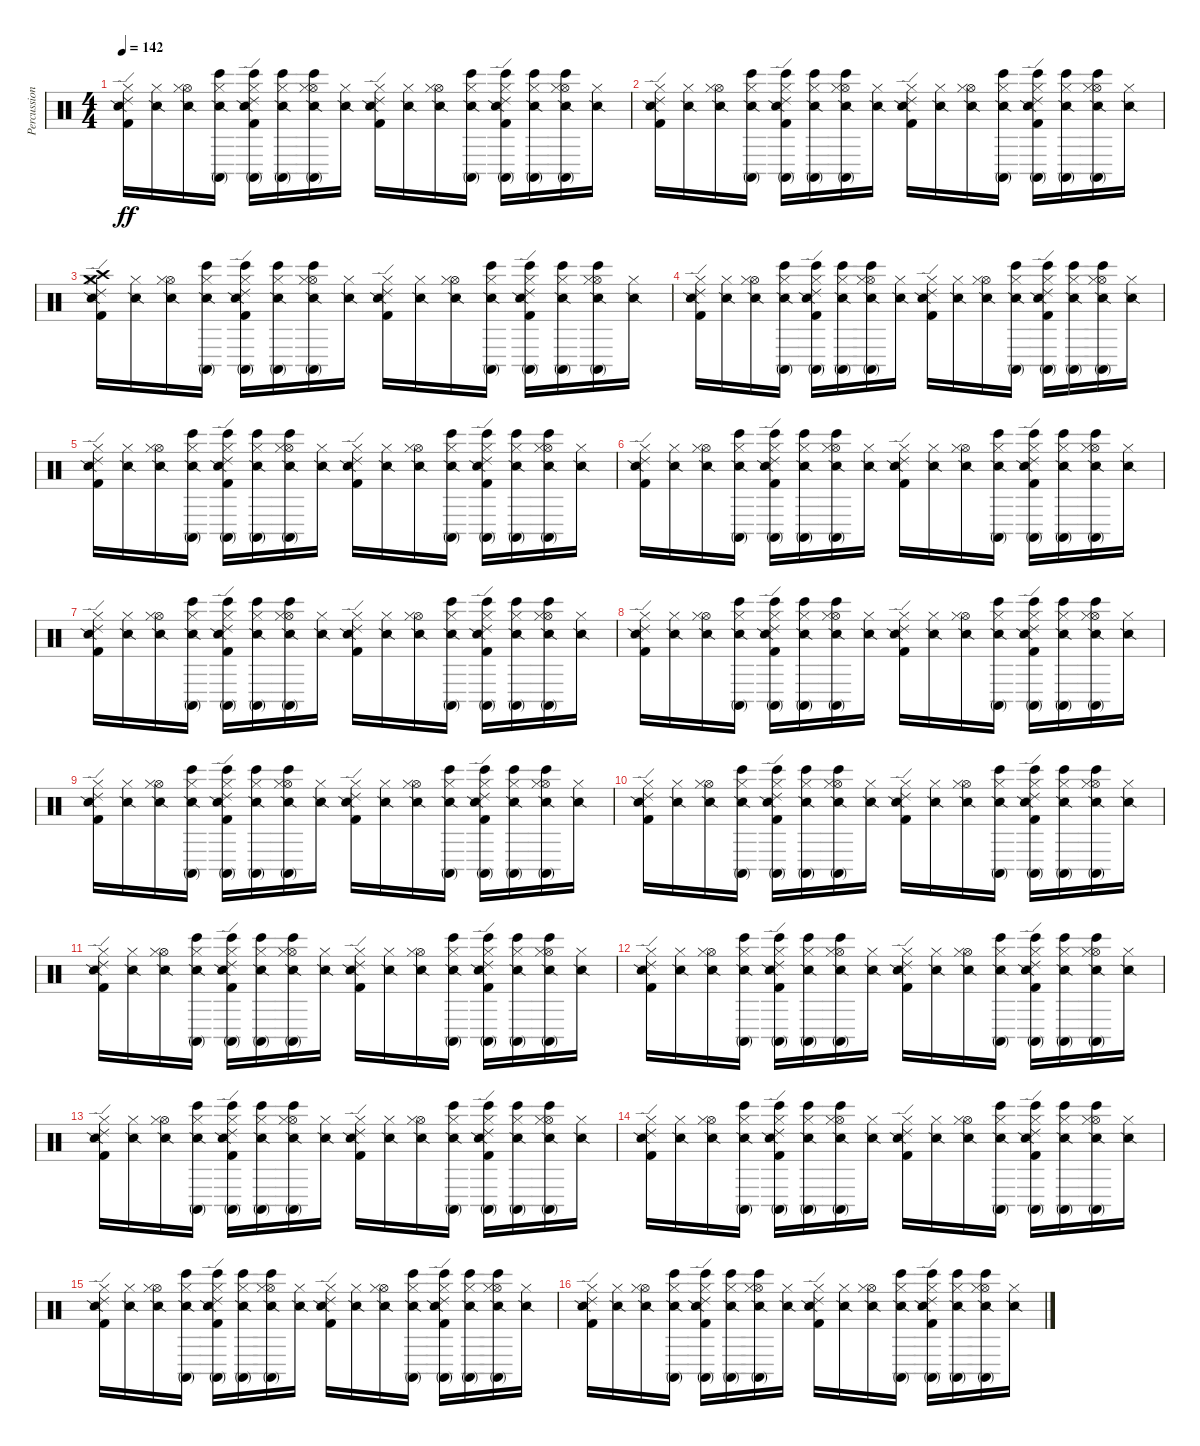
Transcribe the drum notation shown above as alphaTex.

\track ("Percussion" "Percussion") {instrument percussion}
\staff {score}
\articulation defaults
\ts (4 4)
\tempo 142
\clef neutral
\ks c
("Ride (edge) 2" "Hi-Hat (closed)" "Snare (side stick) 2" "Kick (hit) 2").16{dy ff} ("Hi-Hat (closed)" "Snare (side stick) 2").16 ("Hi-Hat (open)" "Hi-Hat (closed)" "Snare (side stick) 2").16 ("Conga high (mute)" "Bongo High (hit)" "Hi-Hat (closed)" "Snare (side stick) 2").16 ("Conga high (mute)" "Bongo High (hit)" "Ride (edge) 2" "Hi-Hat (closed)" "Snare (side stick) 2" "Kick (hit) 2").16 ("Conga high (mute)" "Bongo High (hit)" "Hi-Hat (closed)" "Snare (side stick) 2").16 ("Conga high (mute)" "Bongo High (hit)" "Hi-Hat (open)" "Hi-Hat (closed)" "Snare (side stick) 2").16 ("Hi-Hat (closed)" "Snare (side stick) 2").16 ("Ride (edge) 2" "Hi-Hat (closed)" "Snare (side stick) 2" "Kick (hit) 2").16 ("Hi-Hat (closed)" "Snare (side stick) 2").16 ("Hi-Hat (open)" "Hi-Hat (closed)" "Snare (side stick) 2").16 ("Conga high (mute)" "Bongo High (hit)" "Hi-Hat (closed)" "Snare (side stick) 2").16 ("Conga high (mute)" "Bongo High (hit)" "Ride (edge) 2" "Hi-Hat (closed)" "Snare (side stick) 2" "Kick (hit) 2").16 ("Conga high (mute)" "Bongo High (hit)" "Hi-Hat (closed)" "Snare (side stick) 2").16 ("Conga high (mute)" "Bongo High (hit)" "Hi-Hat (open)" "Hi-Hat (closed)" "Snare (side stick) 2").16 ("Hi-Hat (closed)" "Snare (side stick) 2").16 |
("Ride (edge) 2" "Hi-Hat (closed)" "Snare (side stick) 2" "Kick (hit) 2").16 ("Hi-Hat (closed)" "Snare (side stick) 2").16 ("Hi-Hat (open)" "Hi-Hat (closed)" "Snare (side stick) 2").16 ("Conga high (mute)" "Bongo High (hit)" "Hi-Hat (closed)" "Snare (side stick) 2").16 ("Conga high (mute)" "Bongo High (hit)" "Ride (edge) 2" "Hi-Hat (closed)" "Snare (side stick) 2" "Kick (hit) 2").16 ("Conga high (mute)" "Bongo High (hit)" "Hi-Hat (closed)" "Snare (side stick) 2").16 ("Conga high (mute)" "Bongo High (hit)" "Hi-Hat (open)" "Hi-Hat (closed)" "Snare (side stick) 2").16 ("Hi-Hat (closed)" "Snare (side stick) 2").16 ("Ride (edge) 2" "Hi-Hat (closed)" "Snare (side stick) 2" "Kick (hit) 2").16 ("Hi-Hat (closed)" "Snare (side stick) 2").16 ("Hi-Hat (open)" "Hi-Hat (closed)" "Snare (side stick) 2").16 ("Conga high (mute)" "Bongo High (hit)" "Hi-Hat (closed)" "Snare (side stick) 2").16 ("Conga high (mute)" "Bongo High (hit)" "Ride (edge) 2" "Hi-Hat (closed)" "Snare (side stick) 2" "Kick (hit) 2").16 ("Conga high (mute)" "Bongo High (hit)" "Hi-Hat (closed)" "Snare (side stick) 2").16 ("Conga high (mute)" "Bongo High (hit)" "Hi-Hat (open)" "Hi-Hat (closed)" "Snare (side stick) 2").16 ("Hi-Hat (closed)" "Snare (side stick) 2").16 |
("Ride (edge) 2" "Crash medium (hit)" "Crash high (hit)" "Hi-Hat (closed)" "Snare (side stick) 2" "Kick (hit) 2").16 ("Hi-Hat (closed)" "Snare (side stick) 2").16 ("Hi-Hat (open)" "Hi-Hat (closed)" "Snare (side stick) 2").16 ("Conga high (mute)" "Bongo High (hit)" "Hi-Hat (closed)" "Snare (side stick) 2").16 ("Conga high (mute)" "Bongo High (hit)" "Ride (edge) 2" "Hi-Hat (closed)" "Snare (side stick) 2" "Kick (hit) 2").16 ("Conga high (mute)" "Bongo High (hit)" "Hi-Hat (closed)" "Snare (side stick) 2").16 ("Conga high (mute)" "Bongo High (hit)" "Hi-Hat (open)" "Hi-Hat (closed)" "Snare (side stick) 2").16 ("Hi-Hat (closed)" "Snare (side stick) 2").16 ("Ride (edge) 2" "Hi-Hat (closed)" "Snare (side stick) 2" "Kick (hit) 2").16 ("Hi-Hat (closed)" "Snare (side stick) 2").16 ("Hi-Hat (open)" "Hi-Hat (closed)" "Snare (side stick) 2").16 ("Conga high (mute)" "Bongo High (hit)" "Hi-Hat (closed)" "Snare (side stick) 2").16 ("Conga high (mute)" "Bongo High (hit)" "Ride (edge) 2" "Hi-Hat (closed)" "Snare (side stick) 2" "Kick (hit) 2").16 ("Conga high (mute)" "Bongo High (hit)" "Hi-Hat (closed)" "Snare (side stick) 2").16 ("Conga high (mute)" "Bongo High (hit)" "Hi-Hat (open)" "Hi-Hat (closed)" "Snare (side stick) 2").16 ("Hi-Hat (closed)" "Snare (side stick) 2").16 |
("Ride (edge) 2" "Hi-Hat (closed)" "Snare (side stick) 2" "Kick (hit) 2").16 ("Hi-Hat (closed)" "Snare (side stick) 2").16 ("Hi-Hat (open)" "Hi-Hat (closed)" "Snare (side stick) 2").16 ("Conga high (mute)" "Bongo High (hit)" "Hi-Hat (closed)" "Snare (side stick) 2").16 ("Conga high (mute)" "Bongo High (hit)" "Ride (edge) 2" "Hi-Hat (closed)" "Snare (side stick) 2" "Kick (hit) 2").16 ("Conga high (mute)" "Bongo High (hit)" "Hi-Hat (closed)" "Snare (side stick) 2").16 ("Conga high (mute)" "Bongo High (hit)" "Hi-Hat (open)" "Hi-Hat (closed)" "Snare (side stick) 2").16 ("Hi-Hat (closed)" "Snare (side stick) 2").16 ("Ride (edge) 2" "Hi-Hat (closed)" "Snare (side stick) 2" "Kick (hit) 2").16 ("Hi-Hat (closed)" "Snare (side stick) 2").16 ("Hi-Hat (open)" "Hi-Hat (closed)" "Snare (side stick) 2").16 ("Conga high (mute)" "Bongo High (hit)" "Hi-Hat (closed)" "Snare (side stick) 2").16 ("Conga high (mute)" "Bongo High (hit)" "Ride (edge) 2" "Hi-Hat (closed)" "Snare (side stick) 2" "Kick (hit) 2").16 ("Conga high (mute)" "Bongo High (hit)" "Hi-Hat (closed)" "Snare (side stick) 2").16 ("Conga high (mute)" "Bongo High (hit)" "Hi-Hat (open)" "Hi-Hat (closed)" "Snare (side stick) 2").16 ("Hi-Hat (closed)" "Snare (side stick) 2").16 |
("Ride (edge) 2" "Hi-Hat (closed)" "Snare (side stick) 2" "Kick (hit) 2").16 ("Hi-Hat (closed)" "Snare (side stick) 2").16 ("Hi-Hat (open)" "Hi-Hat (closed)" "Snare (side stick) 2").16 ("Conga high (mute)" "Bongo High (hit)" "Hi-Hat (closed)" "Snare (side stick) 2").16 ("Conga high (mute)" "Bongo High (hit)" "Ride (edge) 2" "Hi-Hat (closed)" "Snare (side stick) 2" "Kick (hit) 2").16 ("Conga high (mute)" "Bongo High (hit)" "Hi-Hat (closed)" "Snare (side stick) 2").16 ("Conga high (mute)" "Bongo High (hit)" "Hi-Hat (open)" "Hi-Hat (closed)" "Snare (side stick) 2").16 ("Hi-Hat (closed)" "Snare (side stick) 2").16 ("Ride (edge) 2" "Hi-Hat (closed)" "Snare (side stick) 2" "Kick (hit) 2").16 ("Hi-Hat (closed)" "Snare (side stick) 2").16 ("Hi-Hat (open)" "Hi-Hat (closed)" "Snare (side stick) 2").16 ("Conga high (mute)" "Bongo High (hit)" "Hi-Hat (closed)" "Snare (side stick) 2").16 ("Conga high (mute)" "Bongo High (hit)" "Ride (edge) 2" "Hi-Hat (closed)" "Snare (side stick) 2" "Kick (hit) 2").16 ("Conga high (mute)" "Bongo High (hit)" "Hi-Hat (closed)" "Snare (side stick) 2").16 ("Conga high (mute)" "Bongo High (hit)" "Hi-Hat (open)" "Hi-Hat (closed)" "Snare (side stick) 2").16 ("Hi-Hat (closed)" "Snare (side stick) 2").16 |
("Ride (edge) 2" "Hi-Hat (closed)" "Snare (side stick) 2" "Kick (hit) 2").16 ("Hi-Hat (closed)" "Snare (side stick) 2").16 ("Hi-Hat (open)" "Hi-Hat (closed)" "Snare (side stick) 2").16 ("Conga high (mute)" "Bongo High (hit)" "Hi-Hat (closed)" "Snare (side stick) 2").16 ("Conga high (mute)" "Bongo High (hit)" "Ride (edge) 2" "Hi-Hat (closed)" "Snare (side stick) 2" "Kick (hit) 2").16 ("Conga high (mute)" "Bongo High (hit)" "Hi-Hat (closed)" "Snare (side stick) 2").16 ("Conga high (mute)" "Bongo High (hit)" "Hi-Hat (open)" "Hi-Hat (closed)" "Snare (side stick) 2").16 ("Hi-Hat (closed)" "Snare (side stick) 2").16 ("Ride (edge) 2" "Hi-Hat (closed)" "Snare (side stick) 2" "Kick (hit) 2").16 ("Hi-Hat (closed)" "Snare (side stick) 2").16 ("Hi-Hat (open)" "Hi-Hat (closed)" "Snare (side stick) 2").16 ("Conga high (mute)" "Bongo High (hit)" "Hi-Hat (closed)" "Snare (side stick) 2").16 ("Conga high (mute)" "Bongo High (hit)" "Ride (edge) 2" "Hi-Hat (closed)" "Snare (side stick) 2" "Kick (hit) 2").16 ("Conga high (mute)" "Bongo High (hit)" "Hi-Hat (closed)" "Snare (side stick) 2").16 ("Conga high (mute)" "Bongo High (hit)" "Hi-Hat (open)" "Hi-Hat (closed)" "Snare (side stick) 2").16 ("Hi-Hat (closed)" "Snare (side stick) 2").16 |
("Ride (edge) 2" "Hi-Hat (closed)" "Snare (side stick) 2" "Kick (hit) 2").16 ("Hi-Hat (closed)" "Snare (side stick) 2").16 ("Hi-Hat (open)" "Hi-Hat (closed)" "Snare (side stick) 2").16 ("Conga high (mute)" "Bongo High (hit)" "Hi-Hat (closed)" "Snare (side stick) 2").16 ("Conga high (mute)" "Bongo High (hit)" "Ride (edge) 2" "Hi-Hat (closed)" "Snare (side stick) 2" "Kick (hit) 2").16 ("Conga high (mute)" "Bongo High (hit)" "Hi-Hat (closed)" "Snare (side stick) 2").16 ("Conga high (mute)" "Bongo High (hit)" "Hi-Hat (open)" "Hi-Hat (closed)" "Snare (side stick) 2").16 ("Hi-Hat (closed)" "Snare (side stick) 2").16 ("Ride (edge) 2" "Hi-Hat (closed)" "Snare (side stick) 2" "Kick (hit) 2").16 ("Hi-Hat (closed)" "Snare (side stick) 2").16 ("Hi-Hat (open)" "Hi-Hat (closed)" "Snare (side stick) 2").16 ("Conga high (mute)" "Bongo High (hit)" "Hi-Hat (closed)" "Snare (side stick) 2").16 ("Conga high (mute)" "Bongo High (hit)" "Ride (edge) 2" "Hi-Hat (closed)" "Snare (side stick) 2" "Kick (hit) 2").16 ("Conga high (mute)" "Bongo High (hit)" "Hi-Hat (closed)" "Snare (side stick) 2").16 ("Conga high (mute)" "Bongo High (hit)" "Hi-Hat (open)" "Hi-Hat (closed)" "Snare (side stick) 2").16 ("Hi-Hat (closed)" "Snare (side stick) 2").16 |
("Ride (edge) 2" "Hi-Hat (closed)" "Snare (side stick) 2" "Kick (hit) 2").16 ("Hi-Hat (closed)" "Snare (side stick) 2").16 ("Hi-Hat (open)" "Hi-Hat (closed)" "Snare (side stick) 2").16 ("Conga high (mute)" "Bongo High (hit)" "Hi-Hat (closed)" "Snare (side stick) 2").16 ("Conga high (mute)" "Bongo High (hit)" "Ride (edge) 2" "Hi-Hat (closed)" "Snare (side stick) 2" "Kick (hit) 2").16 ("Conga high (mute)" "Bongo High (hit)" "Hi-Hat (closed)" "Snare (side stick) 2").16 ("Conga high (mute)" "Bongo High (hit)" "Hi-Hat (open)" "Hi-Hat (closed)" "Snare (side stick) 2").16 ("Hi-Hat (closed)" "Snare (side stick) 2").16 ("Ride (edge) 2" "Hi-Hat (closed)" "Snare (side stick) 2" "Kick (hit) 2").16 ("Hi-Hat (closed)" "Snare (side stick) 2").16 ("Hi-Hat (open)" "Hi-Hat (closed)" "Snare (side stick) 2").16 ("Conga high (mute)" "Bongo High (hit)" "Hi-Hat (closed)" "Snare (side stick) 2").16 ("Conga high (mute)" "Bongo High (hit)" "Ride (edge) 2" "Hi-Hat (closed)" "Snare (side stick) 2" "Kick (hit) 2").16 ("Conga high (mute)" "Bongo High (hit)" "Hi-Hat (closed)" "Snare (side stick) 2").16 ("Conga high (mute)" "Bongo High (hit)" "Hi-Hat (open)" "Hi-Hat (closed)" "Snare (side stick) 2").16 ("Hi-Hat (closed)" "Snare (side stick) 2").16 |
("Ride (edge) 2" "Hi-Hat (closed)" "Snare (side stick) 2" "Kick (hit) 2").16 ("Hi-Hat (closed)" "Snare (side stick) 2").16 ("Hi-Hat (open)" "Hi-Hat (closed)" "Snare (side stick) 2").16 ("Conga high (mute)" "Bongo High (hit)" "Hi-Hat (closed)" "Snare (side stick) 2").16 ("Conga high (mute)" "Bongo High (hit)" "Ride (edge) 2" "Hi-Hat (closed)" "Snare (side stick) 2" "Kick (hit) 2").16 ("Conga high (mute)" "Bongo High (hit)" "Hi-Hat (closed)" "Snare (side stick) 2").16 ("Conga high (mute)" "Bongo High (hit)" "Hi-Hat (open)" "Hi-Hat (closed)" "Snare (side stick) 2").16 ("Hi-Hat (closed)" "Snare (side stick) 2").16 ("Ride (edge) 2" "Hi-Hat (closed)" "Snare (side stick) 2" "Kick (hit) 2").16 ("Hi-Hat (closed)" "Snare (side stick) 2").16 ("Hi-Hat (open)" "Hi-Hat (closed)" "Snare (side stick) 2").16 ("Conga high (mute)" "Bongo High (hit)" "Hi-Hat (closed)" "Snare (side stick) 2").16 ("Conga high (mute)" "Bongo High (hit)" "Ride (edge) 2" "Hi-Hat (closed)" "Snare (side stick) 2" "Kick (hit) 2").16 ("Conga high (mute)" "Bongo High (hit)" "Hi-Hat (closed)" "Snare (side stick) 2").16 ("Conga high (mute)" "Bongo High (hit)" "Hi-Hat (open)" "Hi-Hat (closed)" "Snare (side stick) 2").16 ("Hi-Hat (closed)" "Snare (side stick) 2").16 |
("Ride (edge) 2" "Hi-Hat (closed)" "Snare (side stick) 2" "Kick (hit) 2").16 ("Hi-Hat (closed)" "Snare (side stick) 2").16 ("Hi-Hat (open)" "Hi-Hat (closed)" "Snare (side stick) 2").16 ("Conga high (mute)" "Bongo High (hit)" "Hi-Hat (closed)" "Snare (side stick) 2").16 ("Conga high (mute)" "Bongo High (hit)" "Ride (edge) 2" "Hi-Hat (closed)" "Snare (side stick) 2" "Kick (hit) 2").16 ("Conga high (mute)" "Bongo High (hit)" "Hi-Hat (closed)" "Snare (side stick) 2").16 ("Conga high (mute)" "Bongo High (hit)" "Hi-Hat (open)" "Hi-Hat (closed)" "Snare (side stick) 2").16 ("Hi-Hat (closed)" "Snare (side stick) 2").16 ("Ride (edge) 2" "Hi-Hat (closed)" "Snare (side stick) 2" "Kick (hit) 2").16 ("Hi-Hat (closed)" "Snare (side stick) 2").16 ("Hi-Hat (open)" "Hi-Hat (closed)" "Snare (side stick) 2").16 ("Conga high (mute)" "Bongo High (hit)" "Hi-Hat (closed)" "Snare (side stick) 2").16 ("Conga high (mute)" "Bongo High (hit)" "Ride (edge) 2" "Hi-Hat (closed)" "Snare (side stick) 2" "Kick (hit) 2").16 ("Conga high (mute)" "Bongo High (hit)" "Hi-Hat (closed)" "Snare (side stick) 2").16 ("Conga high (mute)" "Bongo High (hit)" "Hi-Hat (open)" "Hi-Hat (closed)" "Snare (side stick) 2").16 ("Hi-Hat (closed)" "Snare (side stick) 2").16 |
("Ride (edge) 2" "Hi-Hat (closed)" "Snare (side stick) 2" "Kick (hit) 2").16 ("Hi-Hat (closed)" "Snare (side stick) 2").16 ("Hi-Hat (open)" "Hi-Hat (closed)" "Snare (side stick) 2").16 ("Conga high (mute)" "Bongo High (hit)" "Hi-Hat (closed)" "Snare (side stick) 2").16 ("Conga high (mute)" "Bongo High (hit)" "Ride (edge) 2" "Hi-Hat (closed)" "Snare (side stick) 2" "Kick (hit) 2").16 ("Conga high (mute)" "Bongo High (hit)" "Hi-Hat (closed)" "Snare (side stick) 2").16 ("Conga high (mute)" "Bongo High (hit)" "Hi-Hat (open)" "Hi-Hat (closed)" "Snare (side stick) 2").16 ("Hi-Hat (closed)" "Snare (side stick) 2").16 ("Ride (edge) 2" "Hi-Hat (closed)" "Snare (side stick) 2" "Kick (hit) 2").16 ("Hi-Hat (closed)" "Snare (side stick) 2").16 ("Hi-Hat (open)" "Hi-Hat (closed)" "Snare (side stick) 2").16 ("Conga high (mute)" "Bongo High (hit)" "Hi-Hat (closed)" "Snare (side stick) 2").16 ("Conga high (mute)" "Bongo High (hit)" "Ride (edge) 2" "Hi-Hat (closed)" "Snare (side stick) 2" "Kick (hit) 2").16 ("Conga high (mute)" "Bongo High (hit)" "Hi-Hat (closed)" "Snare (side stick) 2").16 ("Conga high (mute)" "Bongo High (hit)" "Hi-Hat (open)" "Hi-Hat (closed)" "Snare (side stick) 2").16 ("Hi-Hat (closed)" "Snare (side stick) 2").16 |
("Ride (edge) 2" "Hi-Hat (closed)" "Snare (side stick) 2" "Kick (hit) 2").16 ("Hi-Hat (closed)" "Snare (side stick) 2").16 ("Hi-Hat (open)" "Hi-Hat (closed)" "Snare (side stick) 2").16 ("Conga high (mute)" "Bongo High (hit)" "Hi-Hat (closed)" "Snare (side stick) 2").16 ("Conga high (mute)" "Bongo High (hit)" "Ride (edge) 2" "Hi-Hat (closed)" "Snare (side stick) 2" "Kick (hit) 2").16 ("Conga high (mute)" "Bongo High (hit)" "Hi-Hat (closed)" "Snare (side stick) 2").16 ("Conga high (mute)" "Bongo High (hit)" "Hi-Hat (open)" "Hi-Hat (closed)" "Snare (side stick) 2").16 ("Hi-Hat (closed)" "Snare (side stick) 2").16 ("Ride (edge) 2" "Hi-Hat (closed)" "Snare (side stick) 2" "Kick (hit) 2").16 ("Hi-Hat (closed)" "Snare (side stick) 2").16 ("Hi-Hat (open)" "Hi-Hat (closed)" "Snare (side stick) 2").16 ("Conga high (mute)" "Bongo High (hit)" "Hi-Hat (closed)" "Snare (side stick) 2").16 ("Conga high (mute)" "Bongo High (hit)" "Ride (edge) 2" "Hi-Hat (closed)" "Snare (side stick) 2" "Kick (hit) 2").16 ("Conga high (mute)" "Bongo High (hit)" "Hi-Hat (closed)" "Snare (side stick) 2").16 ("Conga high (mute)" "Bongo High (hit)" "Hi-Hat (open)" "Hi-Hat (closed)" "Snare (side stick) 2").16 ("Hi-Hat (closed)" "Snare (side stick) 2").16 |
("Ride (edge) 2" "Hi-Hat (closed)" "Snare (side stick) 2" "Kick (hit) 2").16 ("Hi-Hat (closed)" "Snare (side stick) 2").16 ("Hi-Hat (open)" "Hi-Hat (closed)" "Snare (side stick) 2").16 ("Conga high (mute)" "Bongo High (hit)" "Hi-Hat (closed)" "Snare (side stick) 2").16 ("Conga high (mute)" "Bongo High (hit)" "Ride (edge) 2" "Hi-Hat (closed)" "Snare (side stick) 2" "Kick (hit) 2").16 ("Conga high (mute)" "Bongo High (hit)" "Hi-Hat (closed)" "Snare (side stick) 2").16 ("Conga high (mute)" "Bongo High (hit)" "Hi-Hat (open)" "Hi-Hat (closed)" "Snare (side stick) 2").16 ("Hi-Hat (closed)" "Snare (side stick) 2").16 ("Ride (edge) 2" "Hi-Hat (closed)" "Snare (side stick) 2" "Kick (hit) 2").16 ("Hi-Hat (closed)" "Snare (side stick) 2").16 ("Hi-Hat (open)" "Hi-Hat (closed)" "Snare (side stick) 2").16 ("Conga high (mute)" "Bongo High (hit)" "Hi-Hat (closed)" "Snare (side stick) 2").16 ("Conga high (mute)" "Bongo High (hit)" "Ride (edge) 2" "Hi-Hat (closed)" "Snare (side stick) 2" "Kick (hit) 2").16 ("Conga high (mute)" "Bongo High (hit)" "Hi-Hat (closed)" "Snare (side stick) 2").16 ("Conga high (mute)" "Bongo High (hit)" "Hi-Hat (open)" "Hi-Hat (closed)" "Snare (side stick) 2").16 ("Hi-Hat (closed)" "Snare (side stick) 2").16 |
("Ride (edge) 2" "Hi-Hat (closed)" "Snare (side stick) 2" "Kick (hit) 2").16 ("Hi-Hat (closed)" "Snare (side stick) 2").16 ("Hi-Hat (open)" "Hi-Hat (closed)" "Snare (side stick) 2").16 ("Conga high (mute)" "Bongo High (hit)" "Hi-Hat (closed)" "Snare (side stick) 2").16 ("Conga high (mute)" "Bongo High (hit)" "Ride (edge) 2" "Hi-Hat (closed)" "Snare (side stick) 2" "Kick (hit) 2").16 ("Conga high (mute)" "Bongo High (hit)" "Hi-Hat (closed)" "Snare (side stick) 2").16 ("Conga high (mute)" "Bongo High (hit)" "Hi-Hat (open)" "Hi-Hat (closed)" "Snare (side stick) 2").16 ("Hi-Hat (closed)" "Snare (side stick) 2").16 ("Ride (edge) 2" "Hi-Hat (closed)" "Snare (side stick) 2" "Kick (hit) 2").16 ("Hi-Hat (closed)" "Snare (side stick) 2").16 ("Hi-Hat (open)" "Hi-Hat (closed)" "Snare (side stick) 2").16 ("Conga high (mute)" "Bongo High (hit)" "Hi-Hat (closed)" "Snare (side stick) 2").16 ("Conga high (mute)" "Bongo High (hit)" "Ride (edge) 2" "Hi-Hat (closed)" "Snare (side stick) 2" "Kick (hit) 2").16 ("Conga high (mute)" "Bongo High (hit)" "Hi-Hat (closed)" "Snare (side stick) 2").16 ("Conga high (mute)" "Bongo High (hit)" "Hi-Hat (open)" "Hi-Hat (closed)" "Snare (side stick) 2").16 ("Hi-Hat (closed)" "Snare (side stick) 2").16 |
("Ride (edge) 2" "Hi-Hat (closed)" "Snare (side stick) 2" "Kick (hit) 2").16 ("Hi-Hat (closed)" "Snare (side stick) 2").16 ("Hi-Hat (open)" "Hi-Hat (closed)" "Snare (side stick) 2").16 ("Conga high (mute)" "Bongo High (hit)" "Hi-Hat (closed)" "Snare (side stick) 2").16 ("Conga high (mute)" "Bongo High (hit)" "Ride (edge) 2" "Hi-Hat (closed)" "Snare (side stick) 2" "Kick (hit) 2").16 ("Conga high (mute)" "Bongo High (hit)" "Hi-Hat (closed)" "Snare (side stick) 2").16 ("Conga high (mute)" "Bongo High (hit)" "Hi-Hat (open)" "Hi-Hat (closed)" "Snare (side stick) 2").16 ("Hi-Hat (closed)" "Snare (side stick) 2").16 ("Ride (edge) 2" "Hi-Hat (closed)" "Snare (side stick) 2" "Kick (hit) 2").16 ("Hi-Hat (closed)" "Snare (side stick) 2").16 ("Hi-Hat (open)" "Hi-Hat (closed)" "Snare (side stick) 2").16 ("Conga high (mute)" "Bongo High (hit)" "Hi-Hat (closed)" "Snare (side stick) 2").16 ("Conga high (mute)" "Bongo High (hit)" "Ride (edge) 2" "Hi-Hat (closed)" "Snare (side stick) 2" "Kick (hit) 2").16 ("Conga high (mute)" "Bongo High (hit)" "Hi-Hat (closed)" "Snare (side stick) 2").16 ("Conga high (mute)" "Bongo High (hit)" "Hi-Hat (open)" "Hi-Hat (closed)" "Snare (side stick) 2").16 ("Hi-Hat (closed)" "Snare (side stick) 2").16 |
("Ride (edge) 2" "Hi-Hat (closed)" "Snare (side stick) 2" "Kick (hit) 2").16 ("Hi-Hat (closed)" "Snare (side stick) 2").16 ("Hi-Hat (open)" "Hi-Hat (closed)" "Snare (side stick) 2").16 ("Conga high (mute)" "Bongo High (hit)" "Hi-Hat (closed)" "Snare (side stick) 2").16 ("Conga high (mute)" "Bongo High (hit)" "Ride (edge) 2" "Hi-Hat (closed)" "Snare (side stick) 2" "Kick (hit) 2").16 ("Conga high (mute)" "Bongo High (hit)" "Hi-Hat (closed)" "Snare (side stick) 2").16 ("Conga high (mute)" "Bongo High (hit)" "Hi-Hat (open)" "Hi-Hat (closed)" "Snare (side stick) 2").16 ("Hi-Hat (closed)" "Snare (side stick) 2").16 ("Ride (edge) 2" "Hi-Hat (closed)" "Snare (side stick) 2" "Kick (hit) 2").16 ("Hi-Hat (closed)" "Snare (side stick) 2").16 ("Hi-Hat (open)" "Hi-Hat (closed)" "Snare (side stick) 2").16 ("Conga high (mute)" "Bongo High (hit)" "Hi-Hat (closed)" "Snare (side stick) 2").16 ("Conga high (mute)" "Bongo High (hit)" "Ride (edge) 2" "Hi-Hat (closed)" "Snare (side stick) 2" "Kick (hit) 2").16 ("Conga high (mute)" "Bongo High (hit)" "Hi-Hat (closed)" "Snare (side stick) 2").16 ("Conga high (mute)" "Bongo High (hit)" "Hi-Hat (open)" "Hi-Hat (closed)" "Snare (side stick) 2").16 ("Hi-Hat (closed)" "Snare (side stick) 2").16
